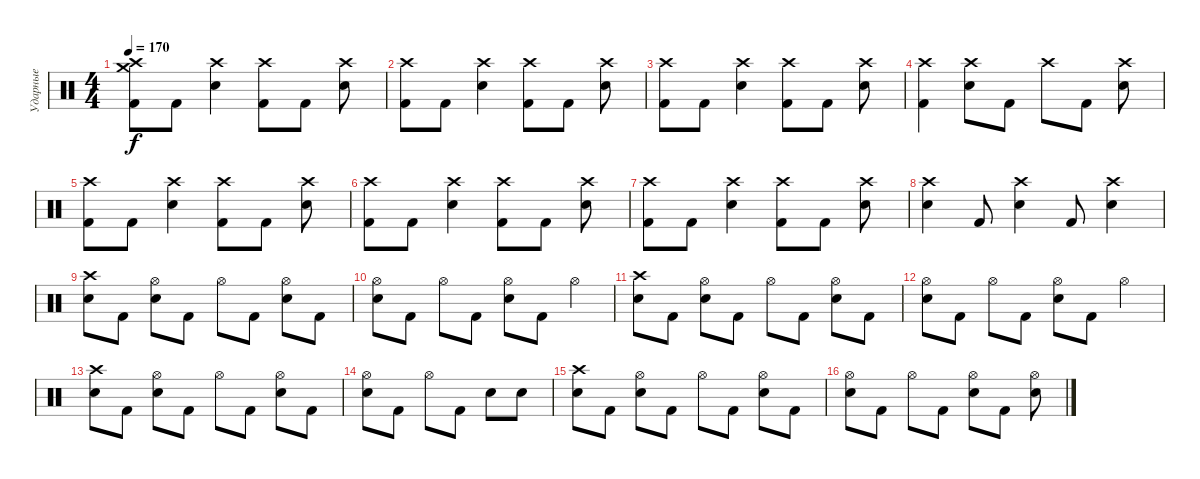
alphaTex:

\track ("Ударные" "Ударные") {instrument percussion}
\staff {score}
\articulation defaults
\ts (4 4)
\tempo 170
\clef neutral
\ks c
("Crash medium (hit)" "Crash high (hit)" "Kick (hit) 2").8{dy f} "Kick (hit) 2".8 ("Crash high (hit)" "Snare (hit) 2").4 ("Crash high (hit)" "Kick (hit) 2").8 "Kick (hit) 2".8 ("Crash high (hit)" "Snare (hit) 2").8 |
("Crash high (hit)" "Kick (hit) 2").8 "Kick (hit) 2".8 ("Crash high (hit)" "Snare (hit) 2").4 ("Crash high (hit)" "Kick (hit) 2").8 "Kick (hit) 2".8 ("Crash high (hit)" "Snare (hit) 2").8 |
("Crash high (hit)" "Kick (hit) 2").8 "Kick (hit) 2".8 ("Crash high (hit)" "Snare (hit) 2").4 ("Crash high (hit)" "Kick (hit) 2").8 "Kick (hit) 2".8 ("Crash high (hit)" "Snare (hit) 2").8 |
("Crash high (hit)" "Kick (hit) 2").4 ("Crash high (hit)" "Snare (hit) 2").8 "Kick (hit) 2".8 "Crash high (hit)".8 "Kick (hit) 2".8 ("Crash high (hit)" "Snare (hit) 2").8 |
("Crash high (hit)" "Kick (hit) 2").8 "Kick (hit) 2".8 ("Crash high (hit)" "Snare (hit) 2").4 ("Crash high (hit)" "Kick (hit) 2").8 "Kick (hit) 2".8 ("Crash high (hit)" "Snare (hit) 2").8 |
("Crash high (hit)" "Kick (hit) 2").8 "Kick (hit) 2".8 ("Crash high (hit)" "Snare (hit) 2").4 ("Crash high (hit)" "Kick (hit) 2").8 "Kick (hit) 2".8 ("Crash high (hit)" "Snare (hit) 2").8 |
("Crash high (hit)" "Kick (hit) 2").8 "Kick (hit) 2".8 ("Crash high (hit)" "Snare (hit) 2").4 ("Crash high (hit)" "Kick (hit) 2").8 "Kick (hit) 2".8 ("Crash high (hit)" "Snare (hit) 2").8 |
("Crash high (hit)" "Snare (hit) 2").4 "Kick (hit) 2".8 ("Crash high (hit)" "Snare (hit) 2").4 "Kick (hit) 2".8 ("Crash high (hit)" "Snare (hit) 2").4 |
("Crash high (hit)" "Snare (hit) 2").8 "Kick (hit) 2".8 ("Hi-Hat (open)" "Snare (hit) 2").8 "Kick (hit) 2".8 "Hi-Hat (open)".8 "Kick (hit) 2".8 ("Hi-Hat (open)" "Snare (hit) 2").8 "Kick (hit) 2".8 |
("Hi-Hat (open)" "Snare (hit) 2").8 "Kick (hit) 2".8 "Hi-Hat (open)".8 "Kick (hit) 2".8 ("Hi-Hat (open)" "Snare (hit) 2").8 "Kick (hit) 2".8 "Hi-Hat (open)".4 |
("Crash high (hit)" "Snare (hit) 2").8 "Kick (hit) 2".8 ("Hi-Hat (open)" "Snare (hit) 2").8 "Kick (hit) 2".8 "Hi-Hat (open)".8 "Kick (hit) 2".8 ("Hi-Hat (open)" "Snare (hit) 2").8 "Kick (hit) 2".8 |
("Hi-Hat (open)" "Snare (hit) 2").8 "Kick (hit) 2".8 "Hi-Hat (open)".8 "Kick (hit) 2".8 ("Hi-Hat (open)" "Snare (hit) 2").8 "Kick (hit) 2".8 "Hi-Hat (open)".4 |
("Crash high (hit)" "Snare (hit) 2").8 "Kick (hit) 2".8 ("Hi-Hat (open)" "Snare (hit) 2").8 "Kick (hit) 2".8 "Hi-Hat (open)".8 "Kick (hit) 2".8 ("Hi-Hat (open)" "Snare (hit) 2").8 "Kick (hit) 2".8 |
("Hi-Hat (open)" "Snare (hit) 2").8 "Kick (hit) 2".8 "Hi-Hat (open)".8 "Kick (hit) 2".8 "Snare (hit) 2".8 "Snare (hit) 2".8 |
("Crash high (hit)" "Snare (hit) 2").8 "Kick (hit) 2".8 ("Hi-Hat (open)" "Snare (hit) 2").8 "Kick (hit) 2".8 "Hi-Hat (open)".8 "Kick (hit) 2".8 ("Hi-Hat (open)" "Snare (hit) 2").8 "Kick (hit) 2".8 |
("Hi-Hat (open)" "Snare (hit) 2").8 "Kick (hit) 2".8 "Hi-Hat (open)".8 "Kick (hit) 2".8 ("Hi-Hat (open)" "Snare (hit) 2").8 "Kick (hit) 2".8 ("Hi-Hat (open)" "Snare (hit) 2").8
